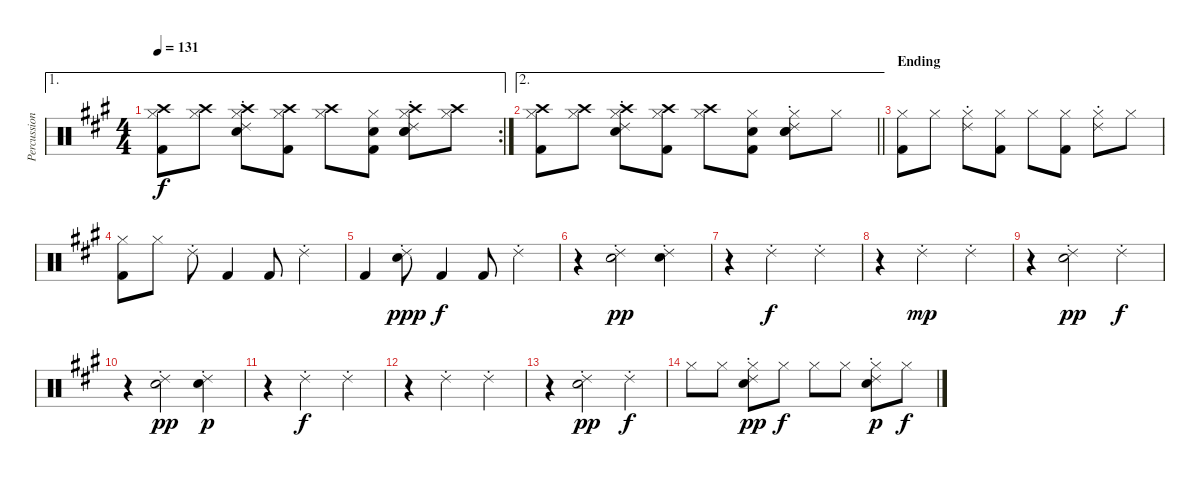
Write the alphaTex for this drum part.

\track ("Percussion" "Percussion") {instrument percussion bank 2}
\staff {score}
\articulation defaults
\ae 1
\rc 2
\ts (4 4)
\tempo 131
\clef neutral
\ks f#minor
("Crash high (hit)" "Hi-Hat (closed)" "Kick (hit) 2").8{dy f} ("Crash high (hit)" "Hi-Hat (closed)").8 ("Crash high (hit)" "Hi-Hat (closed)" "Snare (hit) 2" "Ride (choke) 2").8 ("Crash high (hit)" "Hi-Hat (closed)" "Kick (hit) 2").8 ("Crash high (hit)" "Hi-Hat (closed)").8 ("Hi-Hat (closed)" "Hand Clap (hit)" "Kick (hit) 2").8 ("Crash high (hit)" "Hi-Hat (closed)" "Hand Clap (hit)" "Snare (hit) 2" "Ride (choke) 2").8 ("Crash high (hit)" "Hi-Hat (closed)").8 |
\ae 2
\barLineRight lightlight
("Crash high (hit)" "Hi-Hat (closed)" "Kick (hit) 2").8 ("Crash high (hit)" "Hi-Hat (closed)").8 ("Crash high (hit)" "Hi-Hat (closed)" "Snare (hit) 2" "Ride (choke) 2").8 ("Crash high (hit)" "Hi-Hat (closed)" "Kick (hit) 2").8 ("Crash high (hit)" "Hi-Hat (closed)").8 ("Hi-Hat (closed)" "Hand Clap (hit)" "Kick (hit) 2").8 ("Hi-Hat (closed)" "Hand Clap (hit)" "Snare (hit) 2" "Ride (choke) 2").8 "Hi-Hat (closed)".8 |
\section ("" "Ending")
("Hi-Hat (closed)" "Kick (hit) 2").8 "Hi-Hat (closed)".8 ("Hi-Hat (closed)" "Ride (choke) 2").8 ("Hi-Hat (closed)" "Kick (hit) 2").8 "Hi-Hat (closed)".8 ("Hi-Hat (closed)" "Kick (hit) 2").8 ("Hi-Hat (closed)" "Ride (choke) 2").8 "Hi-Hat (closed)".8 |
("Hi-Hat (closed)" "Kick (hit) 2").8 "Hi-Hat (closed)".8 "Ride (choke) 2".8 "Kick (hit) 2".4 "Kick (hit) 2".8 "Ride (choke) 2".4 |
"Kick (hit) 2".4 ("Snare (hit) 2" "Ride (choke) 2").8{dy ppp} "Kick (hit) 2".4{dy f} "Kick (hit) 2".8 "Ride (choke) 2".4 |
r.4 ("Snare (hit) 2" "Ride (choke) 2").2{dy pp} ("Snare (hit) 2" "Ride (choke) 2").4 |
r.4 "Ride (choke) 2".2{dy f} "Ride (choke) 2".4 |
r.4{txt ""} "Ride (choke) 2".2{dy mp} "Ride (choke) 2".4 |
r.4 ("Snare (hit) 2" "Ride (choke) 2").2{dy pp} "Ride (choke) 2".4{dy f} |
r.4 ("Snare (hit) 2" "Ride (choke) 2").2{dy pp} ("Snare (hit) 2" "Ride (choke) 2").4{dy p} |
r.4 "Ride (choke) 2".2{dy f} "Ride (choke) 2".4 |
r.4 "Ride (choke) 2".2 "Ride (choke) 2".4 |
r.4 ("Snare (hit) 2" "Ride (choke) 2").2{dy pp} "Ride (choke) 2".4{dy f} |
"Hi-Hat (closed)".8 "Hi-Hat (closed)".8 ("Hi-Hat (closed)" "Snare (hit) 2" "Ride (choke) 2").8{dy pp} "Hi-Hat (closed)".8{dy f} "Hi-Hat (closed)".8 "Hi-Hat (closed)".8 ("Hi-Hat (closed)" "Snare (hit) 2" "Ride (choke) 2").8{dy p} "Hi-Hat (closed)".8{dy f}
